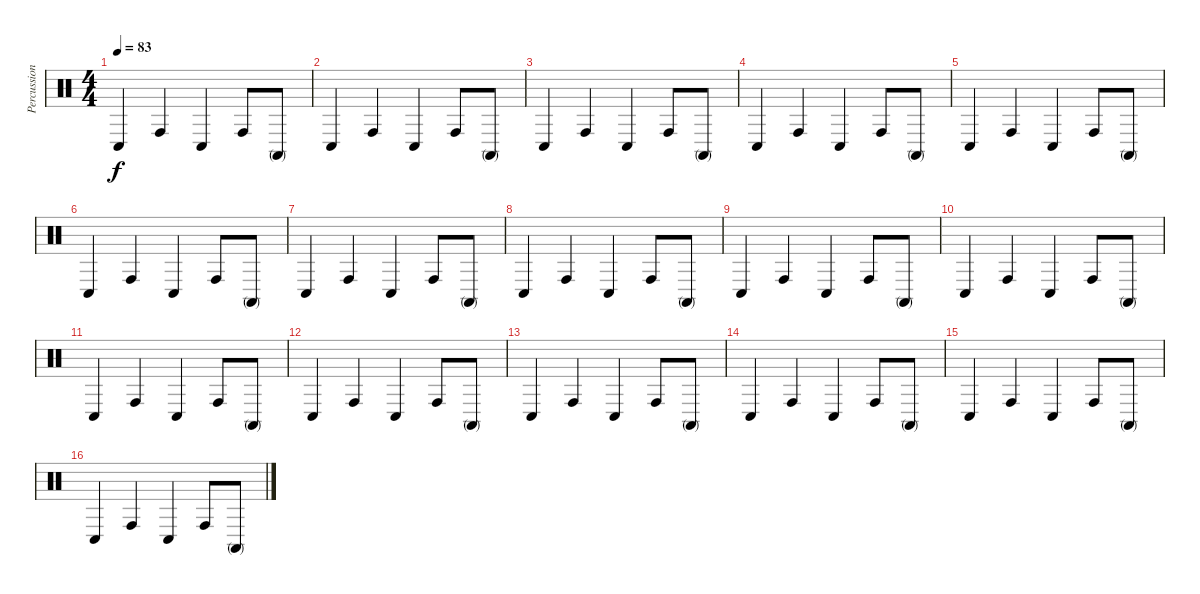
\track ("Percussion 2" "Percussion") {instrument percussion}
\staff {score}
\articulation defaults
\ts (4 4)
\tempo 83
\clef neutral
\ks c "Conga low (hit)".4{dy f} "Conga high (hit)".4 "Conga low (hit)".4 "Conga high (hit)".8 "Conga high (mute)".8
|
"Conga low (hit)".4 "Conga high (hit)".4 "Conga low (hit)".4 "Conga high (hit)".8 "Conga high (mute)".8 |
"Conga low (hit)".4 "Conga high (hit)".4 "Conga low (hit)".4 "Conga high (hit)".8 "Conga high (mute)".8 |
"Conga low (hit)".4 "Conga high (hit)".4 "Conga low (hit)".4 "Conga high (hit)".8 "Conga high (mute)".8 |
"Conga low (hit)".4 "Conga high (hit)".4 "Conga low (hit)".4 "Conga high (hit)".8 "Conga high (mute)".8 |
"Conga low (hit)".4 "Conga high (hit)".4 "Conga low (hit)".4 "Conga high (hit)".8 "Conga high (mute)".8 |
"Conga low (hit)".4 "Conga high (hit)".4 "Conga low (hit)".4 "Conga high (hit)".8 "Conga high (mute)".8 |
"Conga low (hit)".4 "Conga high (hit)".4 "Conga low (hit)".4 "Conga high (hit)".8 "Conga high (mute)".8 |
"Conga low (hit)".4 "Conga high (hit)".4 "Conga low (hit)".4 "Conga high (hit)".8 "Conga high (mute)".8 |
"Conga low (hit)".4 "Conga high (hit)".4 "Conga low (hit)".4 "Conga high (hit)".8 "Conga high (mute)".8 |
"Conga low (hit)".4 "Conga high (hit)".4 "Conga low (hit)".4 "Conga high (hit)".8 "Conga high (mute)".8 |
"Conga low (hit)".4 "Conga high (hit)".4 "Conga low (hit)".4 "Conga high (hit)".8 "Conga high (mute)".8 |
"Conga low (hit)".4 "Conga high (hit)".4 "Conga low (hit)".4 "Conga high (hit)".8 "Conga high (mute)".8 |
"Conga low (hit)".4 "Conga high (hit)".4 "Conga low (hit)".4 "Conga high (hit)".8 "Conga high (mute)".8 |
"Conga low (hit)".4 "Conga high (hit)".4 "Conga low (hit)".4 "Conga high (hit)".8 "Conga high (mute)".8 |
"Conga low (hit)".4 "Conga high (hit)".4 "Conga low (hit)".4 "Conga high (hit)".8 "Conga high (mute)".8
